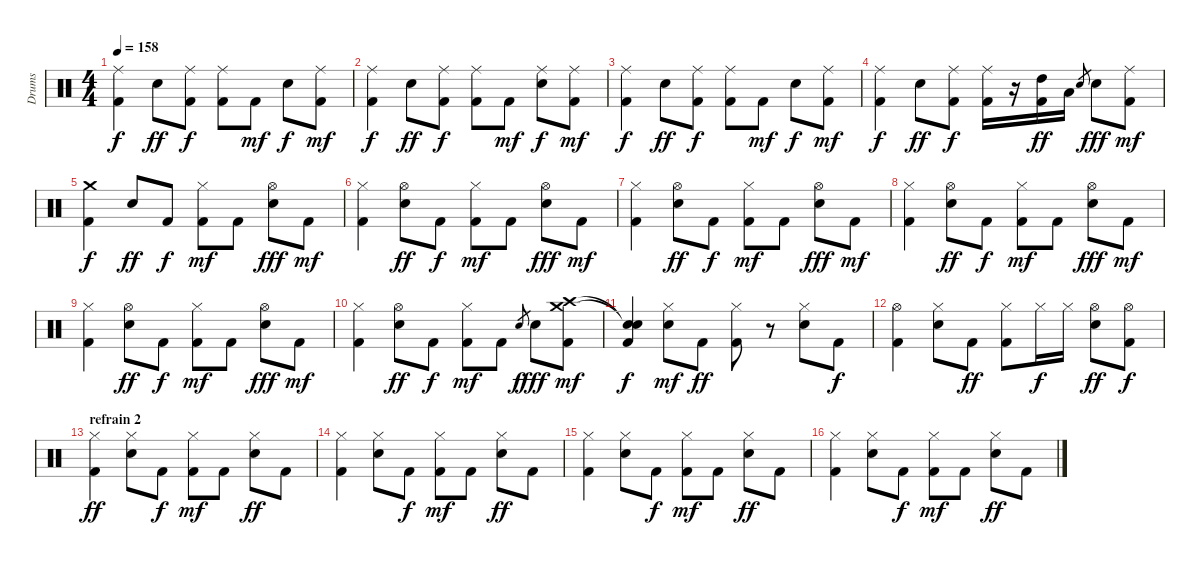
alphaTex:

\track ("Drums" "Drums") {instrument percussion}
\staff {score}
\articulation defaults
\ts (4 4)
\tempo 158
\clef neutral
\ks c
("Ride (middle)" "Kick (hit) 2").4{dy f} "Snare (hit) 2".8{dy ff} ("Ride (middle)" "Kick (hit) 2").8{dy f} ("Ride (middle)" "Kick (hit) 2").8 "Kick (hit) 2".8{dy mf} "Snare (hit) 2".8{dy f} ("Ride (middle)" "Kick (hit) 2").8{dy mf} |
("Ride (middle)" "Kick (hit) 2").4{dy f} "Snare (hit) 2".8{dy ff} ("Ride (middle)" "Kick (hit) 2").8{dy f} ("Ride (middle)" "Kick (hit) 2").8 "Kick (hit) 2".8{dy mf} ("Ride (middle)" "Snare (hit) 2").8{dy f} ("Ride (middle)" "Kick (hit) 2").8{dy mf} |
("Ride (middle)" "Kick (hit) 2").4{dy f} "Snare (hit) 2".8{dy ff} ("Ride (middle)" "Kick (hit) 2").8{dy f} ("Ride (middle)" "Kick (hit) 2").8 "Kick (hit) 2".8{dy mf} "Snare (hit) 2".8{dy f} ("Ride (middle)" "Kick (hit) 2").8{dy mf} |
("Ride (middle)" "Kick (hit) 2").4{dy f} "Snare (hit) 2".8{dy ff} ("Ride (middle)" "Kick (hit) 2").8{dy f} ("Ride (middle)" "Kick (hit) 2").16 r.16 ("High Tom (hit)" "Kick (hit) 2").16{dy ff} "Low Tom (hit)".16 "Snare (hit) 2".8{gr} "Snare (hit) 2".8{dy fff} ("Ride (middle)" "Kick (hit) 2").8{dy mf} |
("Crash medium (hit)" "Kick (hit) 2").4{dy f} "Snare (hit) 2".8{dy ff} "Kick (hit) 2".8{dy f} ("Hi-Hat (closed)" "Kick (hit) 2").8{dy mf} "Kick (hit) 2".8 ("Hi-Hat (open)" "Snare (hit) 2").8{dy fff} "Kick (hit) 2".8{dy mf} |
("Hi-Hat (closed)" "Kick (hit) 2").4 ("Hi-Hat (open)" "Snare (hit) 2").8{dy ff} "Kick (hit) 2".8{dy f} ("Hi-Hat (closed)" "Kick (hit) 2").8{dy mf} "Kick (hit) 2".8 ("Hi-Hat (open)" "Snare (hit) 2").8{dy fff} "Kick (hit) 2".8{dy mf} |
("Hi-Hat (closed)" "Kick (hit) 2").4 ("Hi-Hat (open)" "Snare (hit) 2").8{dy ff} "Kick (hit) 2".8{dy f} ("Hi-Hat (closed)" "Kick (hit) 2").8{dy mf} "Kick (hit) 2".8 ("Hi-Hat (open)" "Snare (hit) 2").8{dy fff} "Kick (hit) 2".8{dy mf} |
("Hi-Hat (closed)" "Kick (hit) 2").4 ("Hi-Hat (open)" "Snare (hit) 2").8{dy ff} "Kick (hit) 2".8{dy f} ("Hi-Hat (closed)" "Kick (hit) 2").8{dy mf} "Kick (hit) 2".8 ("Hi-Hat (open)" "Snare (hit) 2").8{dy fff} "Kick (hit) 2".8{dy mf} |
("Hi-Hat (closed)" "Kick (hit) 2").4 ("Hi-Hat (open)" "Snare (hit) 2").8{dy ff} "Kick (hit) 2".8{dy f} ("Hi-Hat (closed)" "Kick (hit) 2").8{dy mf} "Kick (hit) 2".8 ("Hi-Hat (open)" "Snare (hit) 2").8{dy fff} "Kick (hit) 2".8{dy mf} |
("Hi-Hat (closed)" "Kick (hit) 2").4 ("Hi-Hat (open)" "Snare (hit) 2").8{dy ff} "Kick (hit) 2".8{dy f} ("Hi-Hat (closed)" "Kick (hit) 2").8{dy mf} "Kick (hit) 2".8 "Snare (hit) 2".8{gr dy f} "Snare (hit) 2".8{dy fff} ("Crash medium (hit)" "Crash high (hit)" "Kick (hit) 2").8{dy mf} |
("Snare (hit)"{t} "Snare (hit)"{t} "Kick (hit) 2").4{dy f} ("Hi-Hat (closed)" "Snare (hit) 2").8{dy mf} "Kick (hit) 2".8{dy ff} ("Hi-Hat (closed)" "Kick (hit) 2").8 r.8 ("Hi-Hat (closed)" "Snare (hit) 2").8 "Kick (hit) 2".8{dy f} |
("Hi-Hat (open)" "Kick (hit) 2").4 ("Hi-Hat (closed)" "Snare (hit) 2").8 "Kick (hit) 2".8{dy ff} ("Hi-Hat (closed)" "Kick (hit) 2").8 "Hi-Hat (closed)".16{dy f} "Hi-Hat (closed)".16 ("Hi-Hat (open)" "Snare (hit) 2").8{dy ff} ("Hi-Hat (open)" "Kick (hit) 2").8{dy f} |
\section ("" "refrain 2")
("Hi-Hat (closed)" "Kick (hit) 2").4{dy ff} ("Hi-Hat (closed)" "Snare (hit) 2").8 "Kick (hit) 2".8{dy f} ("Hi-Hat (closed)" "Kick (hit) 2").8{dy mf} "Kick (hit) 2".8 ("Hi-Hat (closed)" "Snare (hit) 2").8{dy ff} "Kick (hit) 2".8 |
("Hi-Hat (closed)" "Kick (hit) 2").4 ("Hi-Hat (closed)" "Snare (hit) 2").8 "Kick (hit) 2".8{dy f} ("Hi-Hat (closed)" "Kick (hit) 2").8{dy mf} "Kick (hit) 2".8 ("Hi-Hat (closed)" "Snare (hit) 2").8{dy ff} "Kick (hit) 2".8 |
("Hi-Hat (closed)" "Kick (hit) 2").4 ("Hi-Hat (closed)" "Snare (hit) 2").8 "Kick (hit) 2".8{dy f} ("Hi-Hat (closed)" "Kick (hit) 2").8{dy mf} "Kick (hit) 2".8 ("Hi-Hat (closed)" "Snare (hit) 2").8{dy ff} "Kick (hit) 2".8 |
("Hi-Hat (closed)" "Kick (hit) 2").4 ("Hi-Hat (closed)" "Snare (hit) 2").8 "Kick (hit) 2".8{dy f} ("Hi-Hat (closed)" "Kick (hit) 2").8{dy mf} "Kick (hit) 2".8 ("Hi-Hat (closed)" "Snare (hit) 2").8{dy ff} "Kick (hit) 2".8
